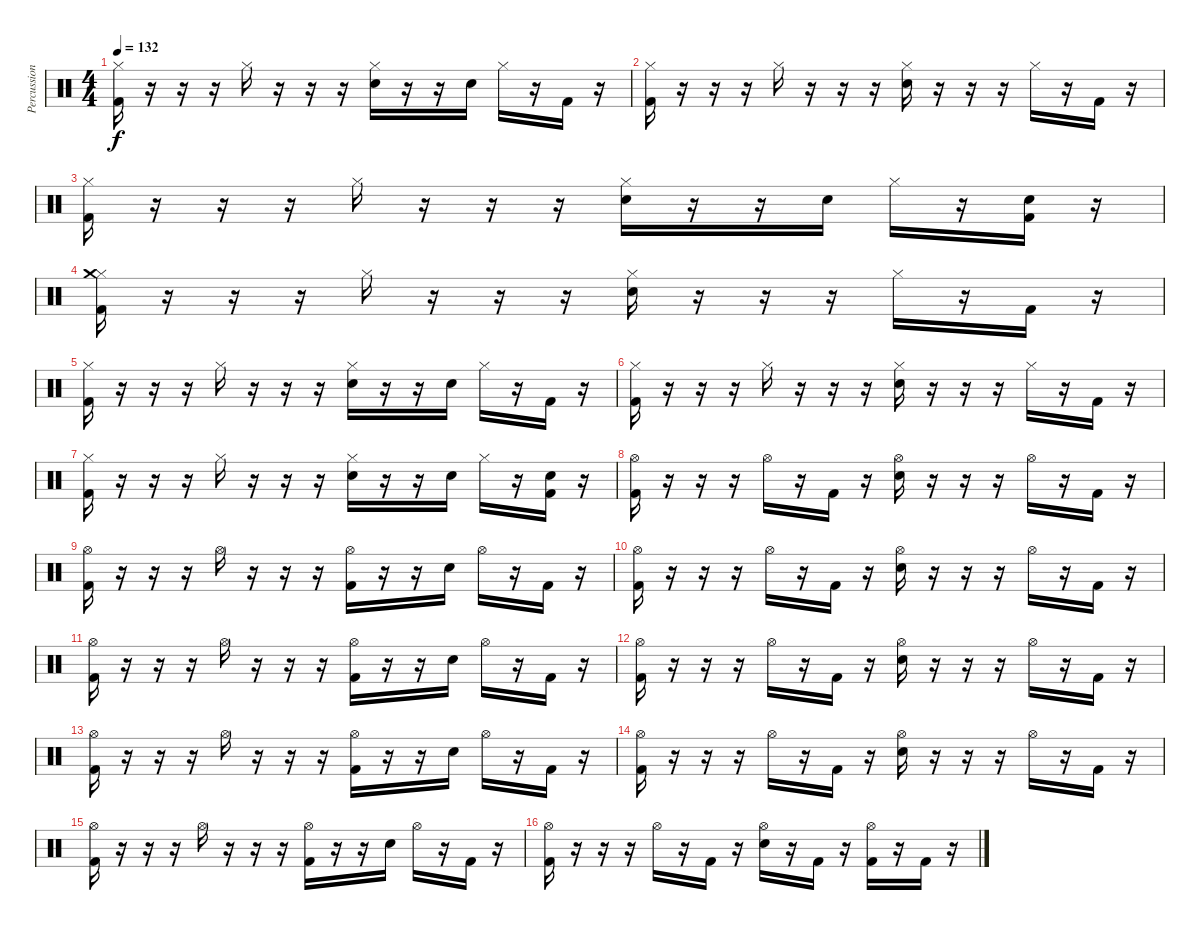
\track ("Percussion" "Percussion") {instrument percussion}
\staff {score}
\articulation defaults
\ts (4 4)
\tempo 132
\clef neutral
\ks c
("Hi-Hat (closed)" "Kick (hit) 2").16{dy f} r.16 r.16 r.16 "Hi-Hat (closed)".16 r.16 r.16 r.16 ("Hi-Hat (closed)" "Snare (hit) 2").16 r.16 r.16 "Snare (hit) 2".16 "Hi-Hat (closed)".16 r.16 "Kick (hit) 2".16 r.16 |
("Hi-Hat (closed)" "Kick (hit) 2").16 r.16 r.16 r.16 "Hi-Hat (closed)".16 r.16 r.16 r.16 ("Hi-Hat (closed)" "Snare (hit) 2").16 r.16 r.16 r.16 "Hi-Hat (closed)".16 r.16 "Kick (hit) 2".16 r.16 |
("Hi-Hat (closed)" "Kick (hit) 2").16 r.16 r.16 r.16 "Hi-Hat (closed)".16 r.16 r.16 r.16 ("Hi-Hat (closed)" "Snare (hit) 2").16 r.16 r.16 "Snare (hit) 2".16 "Hi-Hat (closed)".16 r.16 ("Snare (hit) 2" "Kick (hit) 2").16 r.16 |
("Hi-Hat (closed)" "Kick (hit) 2" "Crash medium (hit)").16 r.16 r.16 r.16 "Hi-Hat (closed)".16 r.16 r.16 r.16 ("Hi-Hat (closed)" "Snare (hit) 2").16 r.16 r.16 r.16 "Hi-Hat (closed)".16 r.16 "Kick (hit) 2".16 r.16 |
("Hi-Hat (closed)" "Kick (hit) 2").16 r.16 r.16 r.16 "Hi-Hat (closed)".16 r.16 r.16 r.16 ("Hi-Hat (closed)" "Snare (hit) 2").16 r.16 r.16 "Snare (hit) 2".16 "Hi-Hat (closed)".16 r.16 "Kick (hit) 2".16 r.16 |
("Hi-Hat (closed)" "Kick (hit) 2").16 r.16 r.16 r.16 "Hi-Hat (closed)".16 r.16 r.16 r.16 ("Hi-Hat (closed)" "Snare (hit) 2").16 r.16 r.16 r.16 "Hi-Hat (closed)".16 r.16 "Kick (hit) 2".16 r.16 |
("Hi-Hat (closed)" "Kick (hit) 2").16 r.16 r.16 r.16 "Hi-Hat (closed)".16 r.16 r.16 r.16 ("Hi-Hat (closed)" "Snare (hit) 2").16 r.16 r.16 "Snare (hit) 2".16 "Hi-Hat (closed)".16 r.16 ("Snare (hit) 2" "Kick (hit) 2").16 r.16 |
("Hi-Hat (open)" "Kick (hit) 2").16 r.16 r.16 r.16 "Hi-Hat (open)".16 r.16 "Kick (hit) 2".16 r.16 ("Hi-Hat (open)" "Snare (hit) 2").16 r.16 r.16 r.16 "Hi-Hat (open)".16 r.16 "Kick (hit) 2".16 r.16 |
("Hi-Hat (open)" "Kick (hit) 2").16 r.16 r.16 r.16 "Hi-Hat (open)".16 r.16 r.16 r.16 ("Hi-Hat (open)" "Kick (hit) 2").16 r.16 r.16 "Snare (hit) 2".16 "Hi-Hat (open)".16 r.16 "Kick (hit) 2".16 r.16 |
("Hi-Hat (open)" "Kick (hit) 2").16 r.16 r.16 r.16 "Hi-Hat (open)".16 r.16 "Kick (hit) 2".16 r.16 ("Hi-Hat (open)" "Snare (hit) 2").16 r.16 r.16 r.16 "Hi-Hat (open)".16 r.16 "Kick (hit) 2".16 r.16 |
("Hi-Hat (open)" "Kick (hit) 2").16 r.16 r.16 r.16 "Hi-Hat (open)".16 r.16 r.16 r.16 ("Hi-Hat (open)" "Kick (hit) 2").16 r.16 r.16 "Snare (hit) 2".16 "Hi-Hat (open)".16 r.16 "Kick (hit) 2".16 r.16 |
("Hi-Hat (open)" "Kick (hit) 2").16 r.16 r.16 r.16 "Hi-Hat (open)".16 r.16 "Kick (hit) 2".16 r.16 ("Hi-Hat (open)" "Snare (hit) 2").16 r.16 r.16 r.16 "Hi-Hat (open)".16 r.16 "Kick (hit) 2".16 r.16 |
("Hi-Hat (open)" "Kick (hit) 2").16 r.16 r.16 r.16 "Hi-Hat (open)".16 r.16 r.16 r.16 ("Hi-Hat (open)" "Kick (hit) 2").16 r.16 r.16 "Snare (hit) 2".16 "Hi-Hat (open)".16 r.16 "Kick (hit) 2".16 r.16 |
("Hi-Hat (open)" "Kick (hit) 2").16 r.16 r.16 r.16 "Hi-Hat (open)".16 r.16 "Kick (hit) 2".16 r.16 ("Hi-Hat (open)" "Snare (hit) 2").16 r.16 r.16 r.16 "Hi-Hat (open)".16 r.16 "Kick (hit) 2".16 r.16 |
("Hi-Hat (open)" "Kick (hit) 2").16 r.16 r.16 r.16 "Hi-Hat (open)".16 r.16 r.16 r.16 ("Hi-Hat (open)" "Kick (hit) 2").16 r.16 r.16 "Snare (hit) 2".16 "Hi-Hat (open)".16 r.16 "Kick (hit) 2".16 r.16 |
("Hi-Hat (open)" "Kick (hit) 2").16 r.16 r.16 r.16 "Hi-Hat (open)".16 r.16 "Kick (hit) 2".16 r.16 ("Hi-Hat (open)" "Snare (hit) 2").16 r.16 "Kick (hit) 2".16 r.16 ("Hi-Hat (open)" "Kick (hit) 2").16 r.16 "Kick (hit) 2".16 r.16
